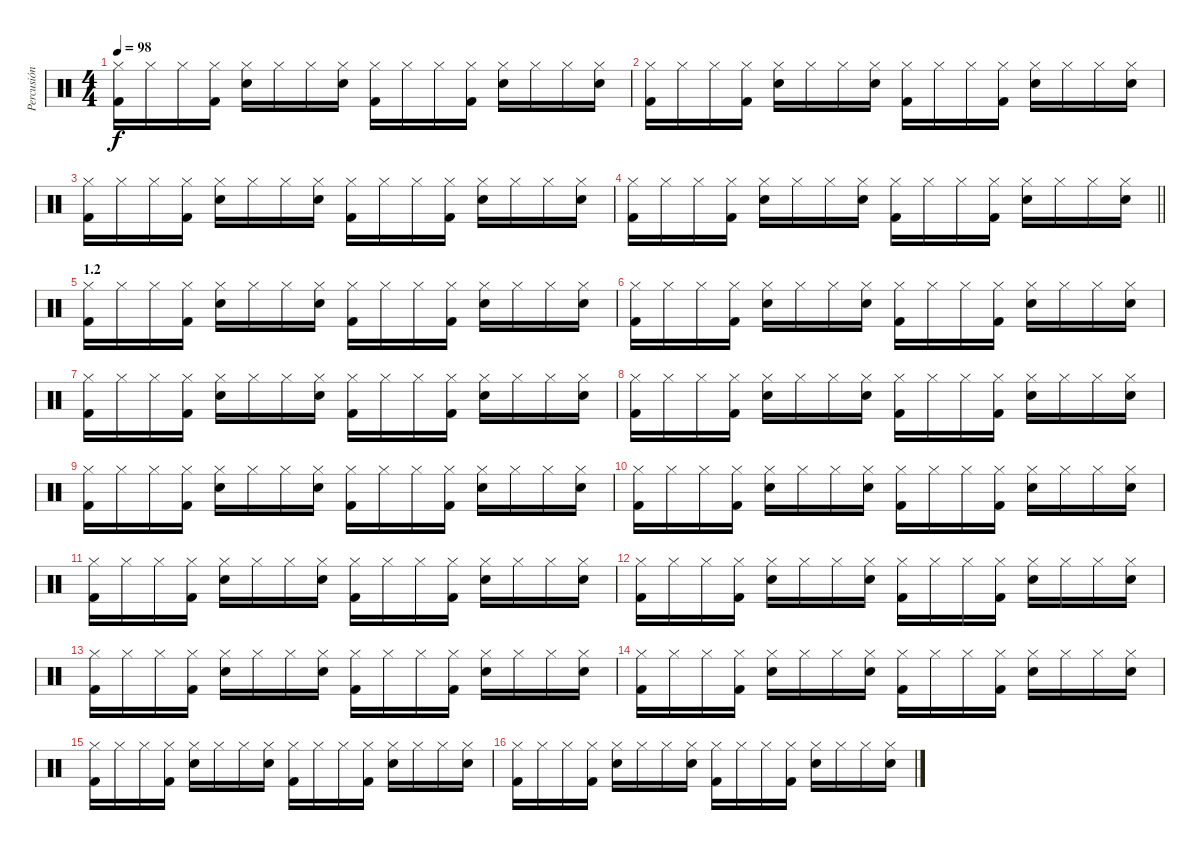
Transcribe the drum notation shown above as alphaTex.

\track ("Percusión" "Percusión") {instrument percussion}
\staff {score}
\articulation defaults
\ts (4 4)
\tempo 98
\clef neutral
\ks c
("Hi-Hat (closed)" "Kick (hit) 2").16{dy f} "Hi-Hat (closed)".16 "Hi-Hat (closed)".16 ("Hi-Hat (closed)" "Kick (hit) 2").16 ("Hi-Hat (closed)" "Snare (hit) 2").16 "Hi-Hat (closed)".16 "Hi-Hat (closed)".16 ("Hi-Hat (closed)" "Snare (hit) 2").16 ("Hi-Hat (closed)" "Kick (hit) 2").16 "Hi-Hat (closed)".16 "Hi-Hat (closed)".16 ("Hi-Hat (closed)" "Kick (hit) 2").16 ("Hi-Hat (closed)" "Snare (hit) 2").16 "Hi-Hat (closed)".16 "Hi-Hat (closed)".16 ("Hi-Hat (closed)" "Snare (hit) 2").16 |
("Hi-Hat (closed)" "Kick (hit) 2").16 "Hi-Hat (closed)".16 "Hi-Hat (closed)".16 ("Hi-Hat (closed)" "Kick (hit) 2").16 ("Hi-Hat (closed)" "Snare (hit) 2").16 "Hi-Hat (closed)".16 "Hi-Hat (closed)".16 ("Hi-Hat (closed)" "Snare (hit) 2").16 ("Hi-Hat (closed)" "Kick (hit) 2").16 "Hi-Hat (closed)".16 "Hi-Hat (closed)".16 ("Hi-Hat (closed)" "Kick (hit) 2").16 ("Hi-Hat (closed)" "Snare (hit) 2").16 "Hi-Hat (closed)".16 "Hi-Hat (closed)".16 ("Hi-Hat (closed)" "Snare (hit) 2").16 |
("Hi-Hat (closed)" "Kick (hit) 2").16 "Hi-Hat (closed)".16 "Hi-Hat (closed)".16 ("Hi-Hat (closed)" "Kick (hit) 2").16 ("Hi-Hat (closed)" "Snare (hit) 2").16 "Hi-Hat (closed)".16 "Hi-Hat (closed)".16 ("Hi-Hat (closed)" "Snare (hit) 2").16 ("Hi-Hat (closed)" "Kick (hit) 2").16 "Hi-Hat (closed)".16 "Hi-Hat (closed)".16 ("Hi-Hat (closed)" "Kick (hit) 2").16 ("Hi-Hat (closed)" "Snare (hit) 2").16 "Hi-Hat (closed)".16 "Hi-Hat (closed)".16 ("Hi-Hat (closed)" "Snare (hit) 2").16 |
\barLineRight lightlight
("Hi-Hat (closed)" "Kick (hit) 2").16 "Hi-Hat (closed)".16 "Hi-Hat (closed)".16 ("Hi-Hat (closed)" "Kick (hit) 2").16 ("Hi-Hat (closed)" "Snare (hit) 2").16 "Hi-Hat (closed)".16 "Hi-Hat (closed)".16 ("Hi-Hat (closed)" "Snare (hit) 2").16 ("Hi-Hat (closed)" "Kick (hit) 2").16 "Hi-Hat (closed)".16 "Hi-Hat (closed)".16 ("Hi-Hat (closed)" "Kick (hit) 2").16 ("Hi-Hat (closed)" "Snare (hit) 2").16 "Hi-Hat (closed)".16 "Hi-Hat (closed)".16 ("Hi-Hat (closed)" "Snare (hit) 2").16 |
\section ("" "1.2")
("Hi-Hat (closed)" "Kick (hit) 2").16 "Hi-Hat (closed)".16 "Hi-Hat (closed)".16 ("Hi-Hat (closed)" "Kick (hit) 2").16 ("Hi-Hat (closed)" "Snare (hit) 2").16 "Hi-Hat (closed)".16 "Hi-Hat (closed)".16 ("Hi-Hat (closed)" "Snare (hit) 2").16 ("Hi-Hat (closed)" "Kick (hit) 2").16 "Hi-Hat (closed)".16 "Hi-Hat (closed)".16 ("Hi-Hat (closed)" "Kick (hit) 2").16 ("Hi-Hat (closed)" "Snare (hit) 2").16 "Hi-Hat (closed)".16 "Hi-Hat (closed)".16 ("Hi-Hat (closed)" "Snare (hit) 2").16 |
("Hi-Hat (closed)" "Kick (hit) 2").16 "Hi-Hat (closed)".16 "Hi-Hat (closed)".16 ("Hi-Hat (closed)" "Kick (hit) 2").16 ("Hi-Hat (closed)" "Snare (hit) 2").16 "Hi-Hat (closed)".16 "Hi-Hat (closed)".16 ("Hi-Hat (closed)" "Snare (hit) 2").16 ("Hi-Hat (closed)" "Kick (hit) 2").16 "Hi-Hat (closed)".16 "Hi-Hat (closed)".16 ("Hi-Hat (closed)" "Kick (hit) 2").16 ("Hi-Hat (closed)" "Snare (hit) 2").16 "Hi-Hat (closed)".16 "Hi-Hat (closed)".16 ("Hi-Hat (closed)" "Snare (hit) 2").16 |
("Hi-Hat (closed)" "Kick (hit) 2").16 "Hi-Hat (closed)".16 "Hi-Hat (closed)".16 ("Hi-Hat (closed)" "Kick (hit) 2").16 ("Hi-Hat (closed)" "Snare (hit) 2").16 "Hi-Hat (closed)".16 "Hi-Hat (closed)".16 ("Hi-Hat (closed)" "Snare (hit) 2").16 ("Hi-Hat (closed)" "Kick (hit) 2").16 "Hi-Hat (closed)".16 "Hi-Hat (closed)".16 ("Hi-Hat (closed)" "Kick (hit) 2").16 ("Hi-Hat (closed)" "Snare (hit) 2").16 "Hi-Hat (closed)".16 "Hi-Hat (closed)".16 ("Hi-Hat (closed)" "Snare (hit) 2").16 |
("Hi-Hat (closed)" "Kick (hit) 2").16 "Hi-Hat (closed)".16 "Hi-Hat (closed)".16 ("Hi-Hat (closed)" "Kick (hit) 2").16 ("Hi-Hat (closed)" "Snare (hit) 2").16 "Hi-Hat (closed)".16 "Hi-Hat (closed)".16 ("Hi-Hat (closed)" "Snare (hit) 2").16 ("Hi-Hat (closed)" "Kick (hit) 2").16 "Hi-Hat (closed)".16 "Hi-Hat (closed)".16 ("Hi-Hat (closed)" "Kick (hit) 2").16 ("Hi-Hat (closed)" "Snare (hit) 2").16 "Hi-Hat (closed)".16 "Hi-Hat (closed)".16 ("Hi-Hat (closed)" "Snare (hit) 2").16 |
("Hi-Hat (closed)" "Kick (hit) 2").16 "Hi-Hat (closed)".16 "Hi-Hat (closed)".16 ("Hi-Hat (closed)" "Kick (hit) 2").16 ("Hi-Hat (closed)" "Snare (hit) 2").16 "Hi-Hat (closed)".16 "Hi-Hat (closed)".16 ("Hi-Hat (closed)" "Snare (hit) 2").16 ("Hi-Hat (closed)" "Kick (hit) 2").16 "Hi-Hat (closed)".16 "Hi-Hat (closed)".16 ("Hi-Hat (closed)" "Kick (hit) 2").16 ("Hi-Hat (closed)" "Snare (hit) 2").16 "Hi-Hat (closed)".16 "Hi-Hat (closed)".16 ("Hi-Hat (closed)" "Snare (hit) 2").16 |
("Hi-Hat (closed)" "Kick (hit) 2").16 "Hi-Hat (closed)".16 "Hi-Hat (closed)".16 ("Hi-Hat (closed)" "Kick (hit) 2").16 ("Hi-Hat (closed)" "Snare (hit) 2").16 "Hi-Hat (closed)".16 "Hi-Hat (closed)".16 ("Hi-Hat (closed)" "Snare (hit) 2").16 ("Hi-Hat (closed)" "Kick (hit) 2").16 "Hi-Hat (closed)".16 "Hi-Hat (closed)".16 ("Hi-Hat (closed)" "Kick (hit) 2").16 ("Hi-Hat (closed)" "Snare (hit) 2").16 "Hi-Hat (closed)".16 "Hi-Hat (closed)".16 ("Hi-Hat (closed)" "Snare (hit) 2").16 |
("Hi-Hat (closed)" "Kick (hit) 2").16 "Hi-Hat (closed)".16 "Hi-Hat (closed)".16 ("Hi-Hat (closed)" "Kick (hit) 2").16 ("Hi-Hat (closed)" "Snare (hit) 2").16 "Hi-Hat (closed)".16 "Hi-Hat (closed)".16 ("Hi-Hat (closed)" "Snare (hit) 2").16 ("Hi-Hat (closed)" "Kick (hit) 2").16 "Hi-Hat (closed)".16 "Hi-Hat (closed)".16 ("Hi-Hat (closed)" "Kick (hit) 2").16 ("Hi-Hat (closed)" "Snare (hit) 2").16 "Hi-Hat (closed)".16 "Hi-Hat (closed)".16 ("Hi-Hat (closed)" "Snare (hit) 2").16 |
("Hi-Hat (closed)" "Kick (hit) 2").16 "Hi-Hat (closed)".16 "Hi-Hat (closed)".16 ("Hi-Hat (closed)" "Kick (hit) 2").16 ("Hi-Hat (closed)" "Snare (hit) 2").16 "Hi-Hat (closed)".16 "Hi-Hat (closed)".16 ("Hi-Hat (closed)" "Snare (hit) 2").16 ("Hi-Hat (closed)" "Kick (hit) 2").16 "Hi-Hat (closed)".16 "Hi-Hat (closed)".16 ("Hi-Hat (closed)" "Kick (hit) 2").16 ("Hi-Hat (closed)" "Snare (hit) 2").16 "Hi-Hat (closed)".16 "Hi-Hat (closed)".16 ("Hi-Hat (closed)" "Snare (hit) 2").16 |
("Hi-Hat (closed)" "Kick (hit) 2").16 "Hi-Hat (closed)".16 "Hi-Hat (closed)".16 ("Hi-Hat (closed)" "Kick (hit) 2").16 ("Hi-Hat (closed)" "Snare (hit) 2").16 "Hi-Hat (closed)".16 "Hi-Hat (closed)".16 ("Hi-Hat (closed)" "Snare (hit) 2").16 ("Hi-Hat (closed)" "Kick (hit) 2").16 "Hi-Hat (closed)".16 "Hi-Hat (closed)".16 ("Hi-Hat (closed)" "Kick (hit) 2").16 ("Hi-Hat (closed)" "Snare (hit) 2").16 "Hi-Hat (closed)".16 "Hi-Hat (closed)".16 ("Hi-Hat (closed)" "Snare (hit) 2").16 |
("Hi-Hat (closed)" "Kick (hit) 2").16 "Hi-Hat (closed)".16 "Hi-Hat (closed)".16 ("Hi-Hat (closed)" "Kick (hit) 2").16 ("Hi-Hat (closed)" "Snare (hit) 2").16 "Hi-Hat (closed)".16 "Hi-Hat (closed)".16 ("Hi-Hat (closed)" "Snare (hit) 2").16 ("Hi-Hat (closed)" "Kick (hit) 2").16 "Hi-Hat (closed)".16 "Hi-Hat (closed)".16 ("Hi-Hat (closed)" "Kick (hit) 2").16 ("Hi-Hat (closed)" "Snare (hit) 2").16 "Hi-Hat (closed)".16 "Hi-Hat (closed)".16 ("Hi-Hat (closed)" "Snare (hit) 2").16 |
("Hi-Hat (closed)" "Kick (hit) 2").16 "Hi-Hat (closed)".16 "Hi-Hat (closed)".16 ("Hi-Hat (closed)" "Kick (hit) 2").16 ("Hi-Hat (closed)" "Snare (hit) 2").16 "Hi-Hat (closed)".16 "Hi-Hat (closed)".16 ("Hi-Hat (closed)" "Snare (hit) 2").16 ("Hi-Hat (closed)" "Kick (hit) 2").16 "Hi-Hat (closed)".16 "Hi-Hat (closed)".16 ("Hi-Hat (closed)" "Kick (hit) 2").16 ("Hi-Hat (closed)" "Snare (hit) 2").16 "Hi-Hat (closed)".16 "Hi-Hat (closed)".16 ("Hi-Hat (closed)" "Snare (hit) 2").16 |
("Hi-Hat (closed)" "Kick (hit) 2").16 "Hi-Hat (closed)".16 "Hi-Hat (closed)".16 ("Hi-Hat (closed)" "Kick (hit) 2").16 ("Hi-Hat (closed)" "Snare (hit) 2").16 "Hi-Hat (closed)".16 "Hi-Hat (closed)".16 ("Hi-Hat (closed)" "Snare (hit) 2").16 ("Hi-Hat (closed)" "Kick (hit) 2").16 "Hi-Hat (closed)".16 "Hi-Hat (closed)".16 ("Hi-Hat (closed)" "Kick (hit) 2").16 ("Hi-Hat (closed)" "Snare (hit) 2").16 "Hi-Hat (closed)".16 "Hi-Hat (closed)".16 ("Hi-Hat (closed)" "Snare (hit) 2").16
